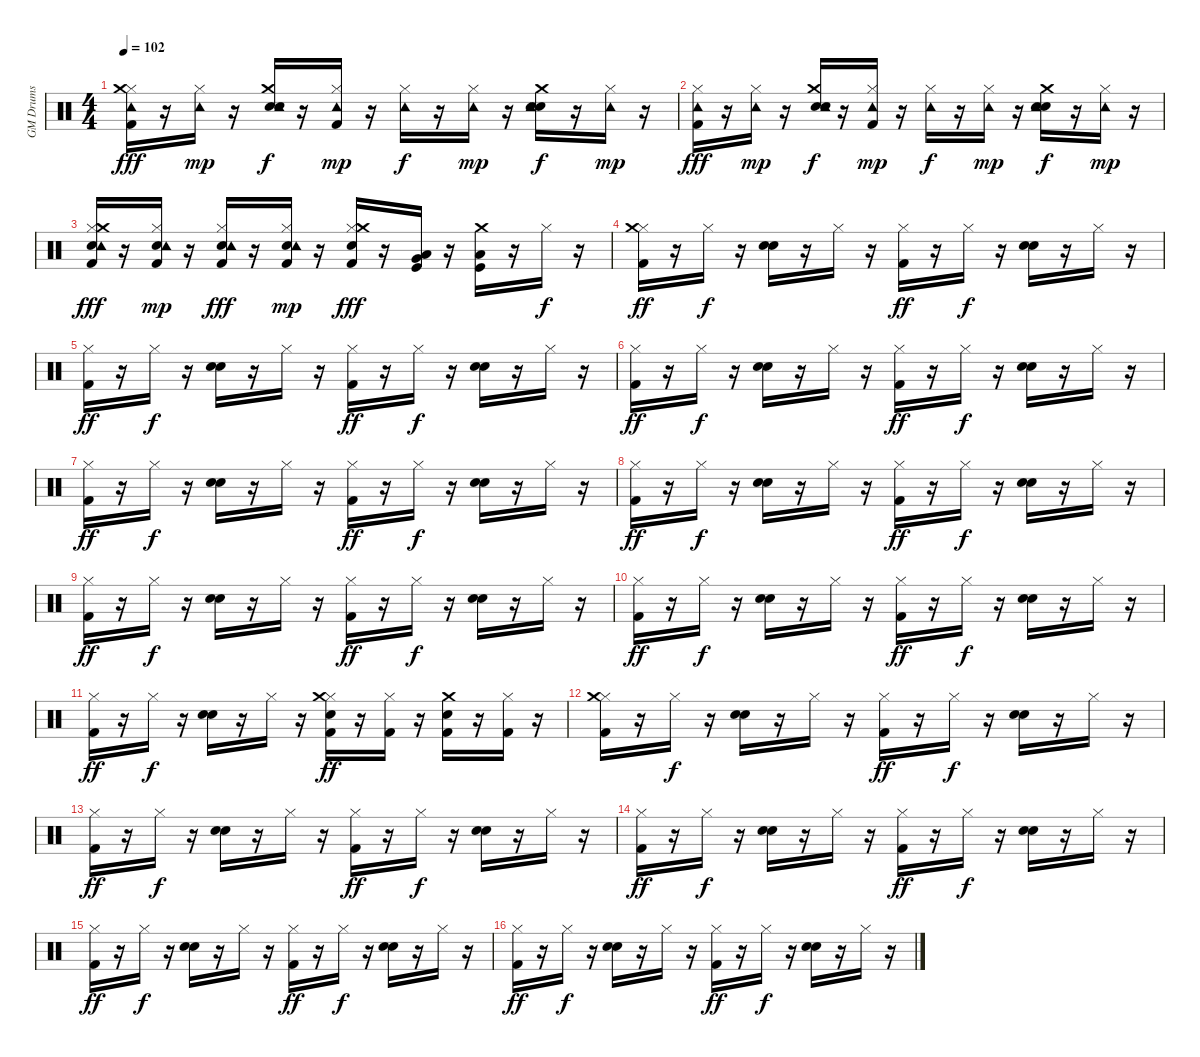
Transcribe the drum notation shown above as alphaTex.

\track ("GM Drums" "GM Drums") {instrument percussion}
\staff {score}
\articulation defaults
\ts (4 4)
\tempo 102
\clef neutral
\ks c
("Kick (hit) 2" "Hi-Hat (closed)" "Tambourine (hit)" "Crash medium (hit)").16{dy fff} r.16 ("Hi-Hat (closed)" "Tambourine (hit)").16{dy mp} r.16 ("Metronome (bell)" "Hand Clap (hit)" "Tambourine (hit)" "Crash medium (hit)").16{dy f} r.16 ("Kick (hit) 2" "Hi-Hat (closed)" "Tambourine (hit)").16{dy mp} r.16 ("Hi-Hat (closed)" "Tambourine (hit)").16{dy f} r.16 ("Hi-Hat (closed)" "Tambourine (hit)").16{dy mp} r.16 ("Metronome (bell)" "Hand Clap (hit)" "Tambourine (hit)" "Crash medium (hit)").16{dy f} r.16 ("Hi-Hat (closed)" "Tambourine (hit)").16{dy mp} r.16 |
("Kick (hit) 2" "Hi-Hat (closed)" "Tambourine (hit)").16{dy fff} r.16 ("Hi-Hat (closed)" "Tambourine (hit)").16{dy mp} r.16 ("Metronome (bell)" "Hand Clap (hit)" "Tambourine (hit)" "Crash medium (hit)").16{dy f} r.16 ("Kick (hit) 2" "Hi-Hat (closed)" "Tambourine (hit)").16{dy mp} r.16 ("Hi-Hat (closed)" "Tambourine (hit)").16{dy f} r.16 ("Hi-Hat (closed)" "Tambourine (hit)").16{dy mp} r.16 ("Metronome (bell)" "Hand Clap (hit)" "Tambourine (hit)" "Crash medium (hit)").16{dy f} r.16 ("Hi-Hat (closed)" "Tambourine (hit)").16{dy mp} r.16 |
("Kick (hit) 2" "Snare (hit) 2" "Hi-Hat (closed)" "Tambourine (hit)" "Crash medium (hit)").16{dy fff} r.16 ("Kick (hit) 2" "Snare (hit) 2" "Hi-Hat (closed)" "Tambourine (hit)").16{dy mp} r.16 ("Kick (hit) 2" "Snare (hit) 2" "Hi-Hat (closed)" "Tambourine (hit)").16{dy fff} r.16 ("Kick (hit) 2" "Snare (hit) 2" "Hi-Hat (closed)" "Tambourine (hit)").16{dy mp} r.16 ("Kick (hit) 2" "Snare (hit) 2" "Hi-Hat (closed)" "Crash medium (hit)").16{dy fff} r.16 ("Low Floor Tom (hit)" "Kick (hit)" "Very Low Tom (hit)").16 r.16 ("Kick (hit)" "Low Floor Tom (hit)" "Crash medium (hit)").16 r.16 "Hi-Hat (closed)".16{dy f} r.16 |
("Kick (hit) 2" "Hi-Hat (closed)" "Crash medium (hit)").16{dy ff} r.16 "Hi-Hat (closed)".16{dy f} r.16 ("Metronome (bell)" "Hand Clap (hit)").16 r.16 "Hi-Hat (closed)".16 r.16 ("Kick (hit) 2" "Hi-Hat (closed)").16{dy ff} r.16 "Hi-Hat (closed)".16{dy f} r.16 ("Metronome (bell)" "Hand Clap (hit)").16 r.16 "Hi-Hat (closed)".16 r.16 |
("Kick (hit) 2" "Hi-Hat (closed)").16{dy ff} r.16 "Hi-Hat (closed)".16{dy f} r.16 ("Metronome (bell)" "Hand Clap (hit)").16 r.16 "Hi-Hat (closed)".16 r.16 ("Kick (hit) 2" "Hi-Hat (closed)").16{dy ff} r.16 "Hi-Hat (closed)".16{dy f} r.16 ("Metronome (bell)" "Hand Clap (hit)").16 r.16 "Hi-Hat (closed)".16 r.16 |
("Kick (hit) 2" "Hi-Hat (closed)").16{dy ff} r.16 "Hi-Hat (closed)".16{dy f} r.16 ("Metronome (bell)" "Hand Clap (hit)").16 r.16 "Hi-Hat (closed)".16 r.16 ("Kick (hit) 2" "Hi-Hat (closed)").16{dy ff} r.16 "Hi-Hat (closed)".16{dy f} r.16 ("Metronome (bell)" "Hand Clap (hit)").16 r.16 "Hi-Hat (closed)".16 r.16 |
("Kick (hit) 2" "Hi-Hat (closed)").16{dy ff} r.16 "Hi-Hat (closed)".16{dy f} r.16 ("Metronome (bell)" "Hand Clap (hit)").16 r.16 "Hi-Hat (closed)".16 r.16 ("Kick (hit) 2" "Hi-Hat (closed)").16{dy ff} r.16 "Hi-Hat (closed)".16{dy f} r.16 ("Metronome (bell)" "Hand Clap (hit)").16 r.16 "Hi-Hat (closed)".16 r.16 |
("Kick (hit) 2" "Hi-Hat (closed)").16{dy ff} r.16 "Hi-Hat (closed)".16{dy f} r.16 ("Metronome (bell)" "Hand Clap (hit)").16 r.16 "Hi-Hat (closed)".16 r.16 ("Kick (hit) 2" "Hi-Hat (closed)").16{dy ff} r.16 "Hi-Hat (closed)".16{dy f} r.16 ("Metronome (bell)" "Hand Clap (hit)").16 r.16 "Hi-Hat (closed)".16 r.16 |
("Kick (hit) 2" "Hi-Hat (closed)").16{dy ff} r.16 "Hi-Hat (closed)".16{dy f} r.16 ("Metronome (bell)" "Hand Clap (hit)").16 r.16 "Hi-Hat (closed)".16 r.16 ("Kick (hit) 2" "Hi-Hat (closed)").16{dy ff} r.16 "Hi-Hat (closed)".16{dy f} r.16 ("Metronome (bell)" "Hand Clap (hit)").16 r.16 "Hi-Hat (closed)".16 r.16 |
("Kick (hit) 2" "Hi-Hat (closed)").16{dy ff} r.16 "Hi-Hat (closed)".16{dy f} r.16 ("Metronome (bell)" "Hand Clap (hit)").16 r.16 "Hi-Hat (closed)".16 r.16 ("Kick (hit) 2" "Hi-Hat (closed)").16{dy ff} r.16 "Hi-Hat (closed)".16{dy f} r.16 ("Metronome (bell)" "Hand Clap (hit)").16 r.16 "Hi-Hat (closed)".16 r.16 |
("Kick (hit) 2" "Hi-Hat (closed)").16{dy ff} r.16 "Hi-Hat (closed)".16{dy f} r.16 ("Metronome (bell)" "Hand Clap (hit)").16 r.16 "Hi-Hat (closed)".16 r.16 ("Metronome (bell)" "Kick (hit) 2" "Hi-Hat (closed)" "Crash medium (hit)").16{dy ff} r.16 ("Kick (hit) 2" "Hi-Hat (closed)").16 r.16 ("Metronome (bell)" "Kick (hit) 2" "Crash medium (hit)").16 r.16 ("Kick (hit) 2" "Hi-Hat (closed)").16 r.16 |
("Kick (hit) 2" "Hi-Hat (closed)" "Crash medium (hit)").16 r.16 "Hi-Hat (closed)".16{dy f} r.16 ("Metronome (bell)" "Hand Clap (hit)").16 r.16 "Hi-Hat (closed)".16 r.16 ("Kick (hit) 2" "Hi-Hat (closed)").16{dy ff} r.16 "Hi-Hat (closed)".16{dy f} r.16 ("Metronome (bell)" "Hand Clap (hit)").16 r.16 "Hi-Hat (closed)".16 r.16 |
("Kick (hit) 2" "Hi-Hat (closed)").16{dy ff} r.16 "Hi-Hat (closed)".16{dy f} r.16 ("Metronome (bell)" "Hand Clap (hit)").16 r.16 "Hi-Hat (closed)".16 r.16 ("Kick (hit) 2" "Hi-Hat (closed)").16{dy ff} r.16 "Hi-Hat (closed)".16{dy f} r.16 ("Metronome (bell)" "Hand Clap (hit)").16 r.16 "Hi-Hat (closed)".16 r.16 |
("Kick (hit) 2" "Hi-Hat (closed)").16{dy ff} r.16 "Hi-Hat (closed)".16{dy f} r.16 ("Metronome (bell)" "Hand Clap (hit)").16 r.16 "Hi-Hat (closed)".16 r.16 ("Kick (hit) 2" "Hi-Hat (closed)").16{dy ff} r.16 "Hi-Hat (closed)".16{dy f} r.16 ("Metronome (bell)" "Hand Clap (hit)").16 r.16 "Hi-Hat (closed)".16 r.16 |
("Kick (hit) 2" "Hi-Hat (closed)").16{dy ff} r.16 "Hi-Hat (closed)".16{dy f} r.16 ("Metronome (bell)" "Hand Clap (hit)").16 r.16 "Hi-Hat (closed)".16 r.16 ("Kick (hit) 2" "Hi-Hat (closed)").16{dy ff} r.16 "Hi-Hat (closed)".16{dy f} r.16 ("Metronome (bell)" "Hand Clap (hit)").16 r.16 "Hi-Hat (closed)".16 r.16 |
("Kick (hit) 2" "Hi-Hat (closed)").16{dy ff} r.16 "Hi-Hat (closed)".16{dy f} r.16 ("Metronome (bell)" "Hand Clap (hit)").16 r.16 "Hi-Hat (closed)".16 r.16 ("Kick (hit) 2" "Hi-Hat (closed)").16{dy ff} r.16 "Hi-Hat (closed)".16{dy f} r.16 ("Metronome (bell)" "Hand Clap (hit)").16 r.16 "Hi-Hat (closed)".16 r.16
